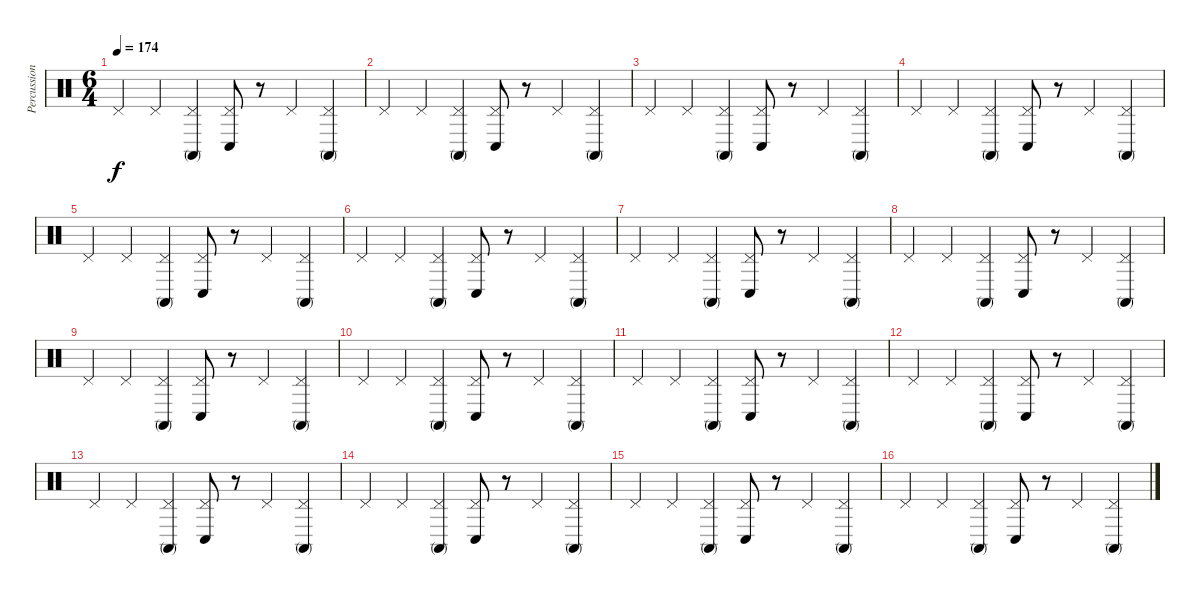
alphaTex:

\track ("Percussion" "Percussion") {instrument percussion}
\staff {score}
\articulation defaults
\ts (6 4)
\tempo 174
\clef neutral
\ks c "Pedal Hi-Hat (hit)".4{dy f} "Pedal Hi-Hat (hit)".4
("Pedal Hi-Hat (hit)" "Conga high (mute)").4 ("Pedal Hi-Hat (hit)" "Conga low (hit)").8 r.8 "Pedal Hi-Hat (hit)".4 ("Pedal Hi-Hat (hit)" "Conga high (mute)").4 |
"Pedal Hi-Hat (hit)".4 "Pedal Hi-Hat (hit)".4 ("Pedal Hi-Hat (hit)" "Conga high (mute)").4 ("Pedal Hi-Hat (hit)" "Conga low (hit)").8 r.8 "Pedal Hi-Hat (hit)".4 ("Pedal Hi-Hat (hit)" "Conga high (mute)").4 |
"Pedal Hi-Hat (hit)".4 "Pedal Hi-Hat (hit)".4 ("Pedal Hi-Hat (hit)" "Conga high (mute)").4 ("Pedal Hi-Hat (hit)" "Conga low (hit)").8 r.8 "Pedal Hi-Hat (hit)".4 ("Pedal Hi-Hat (hit)" "Conga high (mute)").4 |
"Pedal Hi-Hat (hit)".4 "Pedal Hi-Hat (hit)".4 ("Pedal Hi-Hat (hit)" "Conga high (mute)").4 ("Pedal Hi-Hat (hit)" "Conga low (hit)").8 r.8 "Pedal Hi-Hat (hit)".4 ("Pedal Hi-Hat (hit)" "Conga high (mute)").4 |
"Pedal Hi-Hat (hit)".4 "Pedal Hi-Hat (hit)".4 ("Pedal Hi-Hat (hit)" "Conga high (mute)").4 ("Pedal Hi-Hat (hit)" "Conga low (hit)").8 r.8 "Pedal Hi-Hat (hit)".4 ("Pedal Hi-Hat (hit)" "Conga high (mute)").4 |
"Pedal Hi-Hat (hit)".4 "Pedal Hi-Hat (hit)".4 ("Pedal Hi-Hat (hit)" "Conga high (mute)").4 ("Pedal Hi-Hat (hit)" "Conga low (hit)").8 r.8 "Pedal Hi-Hat (hit)".4 ("Pedal Hi-Hat (hit)" "Conga high (mute)").4 |
"Pedal Hi-Hat (hit)".4 "Pedal Hi-Hat (hit)".4 ("Pedal Hi-Hat (hit)" "Conga high (mute)").4 ("Pedal Hi-Hat (hit)" "Conga low (hit)").8 r.8 "Pedal Hi-Hat (hit)".4 ("Pedal Hi-Hat (hit)" "Conga high (mute)").4 |
"Pedal Hi-Hat (hit)".4 "Pedal Hi-Hat (hit)".4 ("Pedal Hi-Hat (hit)" "Conga high (mute)").4 ("Pedal Hi-Hat (hit)" "Conga low (hit)").8 r.8 "Pedal Hi-Hat (hit)".4 ("Pedal Hi-Hat (hit)" "Conga high (mute)").4 |
"Pedal Hi-Hat (hit)".4 "Pedal Hi-Hat (hit)".4 ("Pedal Hi-Hat (hit)" "Conga high (mute)").4 ("Pedal Hi-Hat (hit)" "Conga low (hit)").8 r.8 "Pedal Hi-Hat (hit)".4 ("Pedal Hi-Hat (hit)" "Conga high (mute)").4 |
"Pedal Hi-Hat (hit)".4 "Pedal Hi-Hat (hit)".4 ("Pedal Hi-Hat (hit)" "Conga high (mute)").4 ("Pedal Hi-Hat (hit)" "Conga low (hit)").8 r.8 "Pedal Hi-Hat (hit)".4 ("Pedal Hi-Hat (hit)" "Conga high (mute)").4 |
"Pedal Hi-Hat (hit)".4 "Pedal Hi-Hat (hit)".4 ("Pedal Hi-Hat (hit)" "Conga high (mute)").4 ("Pedal Hi-Hat (hit)" "Conga low (hit)").8 r.8 "Pedal Hi-Hat (hit)".4 ("Pedal Hi-Hat (hit)" "Conga high (mute)").4 |
"Pedal Hi-Hat (hit)".4 "Pedal Hi-Hat (hit)".4 ("Pedal Hi-Hat (hit)" "Conga high (mute)").4 ("Pedal Hi-Hat (hit)" "Conga low (hit)").8 r.8 "Pedal Hi-Hat (hit)".4 ("Pedal Hi-Hat (hit)" "Conga high (mute)").4 |
"Pedal Hi-Hat (hit)".4 "Pedal Hi-Hat (hit)".4 ("Pedal Hi-Hat (hit)" "Conga high (mute)").4 ("Pedal Hi-Hat (hit)" "Conga low (hit)").8 r.8 "Pedal Hi-Hat (hit)".4 ("Pedal Hi-Hat (hit)" "Conga high (mute)").4 |
"Pedal Hi-Hat (hit)".4 "Pedal Hi-Hat (hit)".4 ("Pedal Hi-Hat (hit)" "Conga high (mute)").4 ("Pedal Hi-Hat (hit)" "Conga low (hit)").8 r.8 "Pedal Hi-Hat (hit)".4 ("Pedal Hi-Hat (hit)" "Conga high (mute)").4 |
"Pedal Hi-Hat (hit)".4 "Pedal Hi-Hat (hit)".4 ("Pedal Hi-Hat (hit)" "Conga high (mute)").4 ("Pedal Hi-Hat (hit)" "Conga low (hit)").8 r.8 "Pedal Hi-Hat (hit)".4 ("Pedal Hi-Hat (hit)" "Conga high (mute)").4 |
"Pedal Hi-Hat (hit)".4 "Pedal Hi-Hat (hit)".4 ("Pedal Hi-Hat (hit)" "Conga high (mute)").4 ("Pedal Hi-Hat (hit)" "Conga low (hit)").8 r.8 "Pedal Hi-Hat (hit)".4 ("Pedal Hi-Hat (hit)" "Conga high (mute)").4
